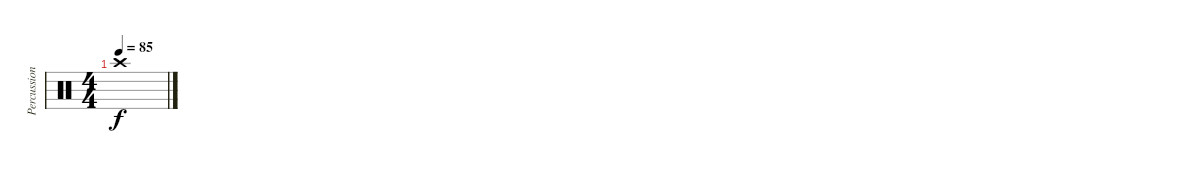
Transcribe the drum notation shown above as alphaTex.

\track ("Percussion" "Percussion") {instrument percussion}
\staff {score}
\articulation defaults
\ts (4 4)
\tempo 85
\clef neutral
\ks c "Crash high (hit)".1{dy f}
